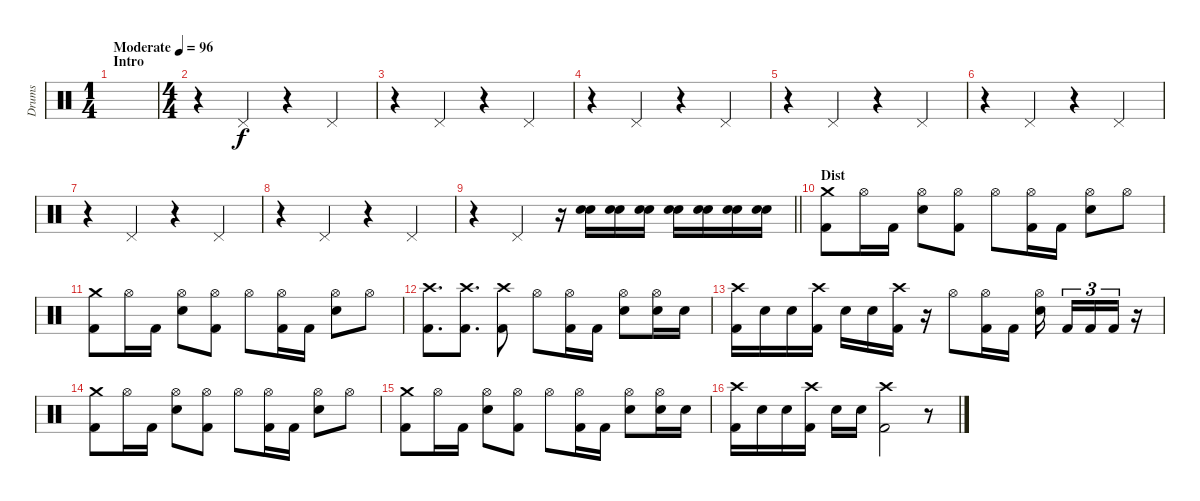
\track ("Drums" "Drums") {instrument percussion}
\staff {score}
\articulation defaults
\ts (1 4)
\section ("" "Intro")
\tempo (96 "Moderate")
\clef neutral
\ks c
|
\ts (4 4)
r.4 "Pedal Hi-Hat (hit)".4 r.4 "Pedal Hi-Hat (hit)".4 |
r.4 "Pedal Hi-Hat (hit)".4 r.4 "Pedal Hi-Hat (hit)".4 |
r.4 "Pedal Hi-Hat (hit)".4 r.4 "Pedal Hi-Hat (hit)".4 |
r.4 "Pedal Hi-Hat (hit)".4 r.4 "Pedal Hi-Hat (hit)".4 |
r.4 "Pedal Hi-Hat (hit)".4 r.4 "Pedal Hi-Hat (hit)".4 |
r.4 "Pedal Hi-Hat (hit)".4 r.4 "Pedal Hi-Hat (hit)".4 |
r.4 "Pedal Hi-Hat (hit)".4 r.4 "Pedal Hi-Hat (hit)".4 |
\barLineRight lightlight
r.4 "Pedal Hi-Hat (hit)".4 r.16 ("Electric Snare (hit)" "Snare (hit) 2").16 ("Electric Snare (hit)" "Snare (hit) 2").16 ("Electric Snare (hit)" "Snare (hit) 2").16 ("Electric Snare (hit)" "Snare (hit) 2").16 ("Electric Snare (hit)" "Snare (hit) 2").16 ("Electric Snare (hit)" "Snare (hit) 2").16 ("Electric Snare (hit)" "Snare (hit) 2").16 |
\section ("" "Dist")
("Crash medium (hit)" "Kick (hit) 2").8 "Hi-Hat (open)".16 "Kick (hit) 2".16 ("Hi-Hat (open)" "Electric Snare (hit)").8 ("Hi-Hat (open)" "Kick (hit) 2").8 "Hi-Hat (open)".8 ("Hi-Hat (open)" "Kick (hit) 2").16 "Kick (hit) 2".16 ("Hi-Hat (open)" "Electric Snare (hit)").8 "Hi-Hat (open)".8 |
("Crash medium (hit)" "Kick (hit) 2").8 "Hi-Hat (open)".16 "Kick (hit) 2".16 ("Hi-Hat (open)" "Electric Snare (hit)").8 ("Hi-Hat (open)" "Kick (hit) 2").8 "Hi-Hat (open)".8 ("Hi-Hat (open)" "Kick (hit) 2").16 "Kick (hit) 2".16 ("Hi-Hat (open)" "Electric Snare (hit)").8 "Hi-Hat (open)".8 |
("Crash high (hit)" "Kick (hit) 2").8{d} ("Crash high (hit)" "Kick (hit) 2").8{d} ("Crash high (hit)" "Kick (hit) 2").8 "Hi-Hat (open)".8 ("Hi-Hat (open)" "Kick (hit) 2").16 "Kick (hit) 2".16 ("Hi-Hat (open)" "Electric Snare (hit)").8 ("Hi-Hat (open)" "Electric Snare (hit)").16 "Electric Snare (hit)".16 |
("Crash high (hit)" "Kick (hit) 2").16 "Electric Snare (hit)".16 "Electric Snare (hit)".16 ("Crash high (hit)" "Kick (hit) 2").16 "Electric Snare (hit)".16 "Electric Snare (hit)".16 ("Crash high (hit)" "Kick (hit) 2").16 r.16 "Hi-Hat (open)".8 ("Hi-Hat (open)" "Kick (hit) 2").16 "Kick (hit) 2".16 ("Hi-Hat (open)" "Electric Snare (hit)").16{beam splitsecondary} "Kick (hit) 2".16{tu (3 2)} "Kick (hit) 2".16{tu (3 2)} "Kick (hit) 2".16{tu (3 2)} r.16 |
("Crash medium (hit)" "Kick (hit) 2").8 "Hi-Hat (open)".16 "Kick (hit) 2".16 ("Hi-Hat (open)" "Electric Snare (hit)").8 ("Hi-Hat (open)" "Kick (hit) 2").8 "Hi-Hat (open)".8 ("Hi-Hat (open)" "Kick (hit) 2").16 "Kick (hit) 2".16 ("Hi-Hat (open)" "Electric Snare (hit)").8 "Hi-Hat (open)".8 |
("Crash medium (hit)" "Kick (hit) 2").8 "Hi-Hat (open)".16 "Kick (hit) 2".16 ("Hi-Hat (open)" "Electric Snare (hit)").8 ("Hi-Hat (open)" "Kick (hit) 2").8 "Hi-Hat (open)".8 ("Hi-Hat (open)" "Kick (hit) 2").16 "Kick (hit) 2".16 ("Hi-Hat (open)" "Electric Snare (hit)").8 ("Hi-Hat (open)" "Electric Snare (hit)").16 "Electric Snare (hit)".16 |
("Crash high (hit)" "Kick (hit) 2").16 "Electric Snare (hit)".16 "Electric Snare (hit)".16 ("Crash high (hit)" "Kick (hit) 2").16 "Electric Snare (hit)".16 "Electric Snare (hit)".16 ("Crash high (hit)" "Kick (hit) 2").2 r.8
